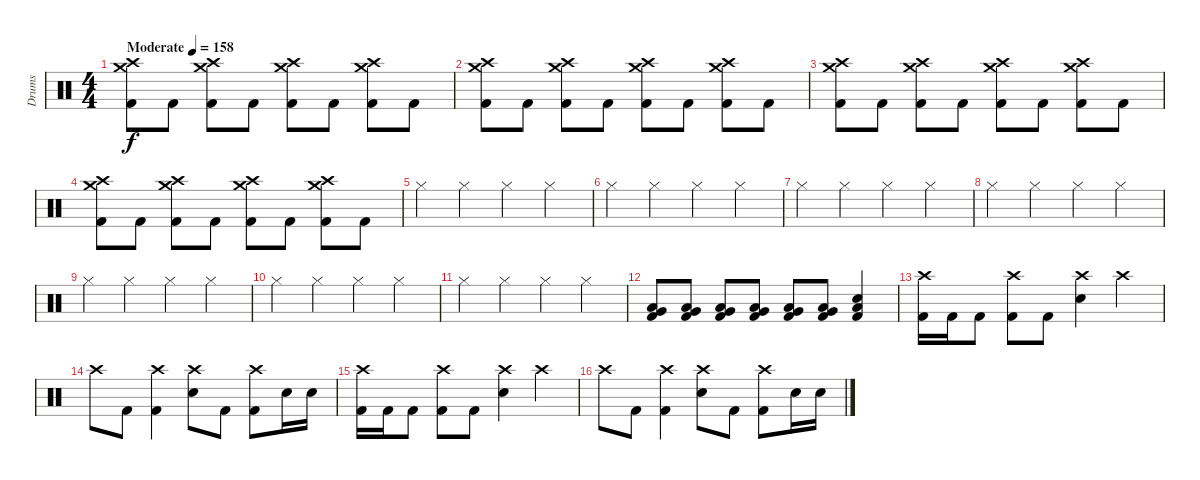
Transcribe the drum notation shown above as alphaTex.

\track ("Drums" "Drums") {instrument percussion}
\staff {score}
\articulation defaults
\ts (4 4)
\tempo (158 "Moderate")
\clef neutral
\ks c
("Crash high (hit)" "Crash medium (hit)" "Kick (hit) 2").8{dy f} "Kick (hit) 2".8 ("Crash high (hit)" "Crash medium (hit)" "Kick (hit) 2").8 "Kick (hit) 2".8 ("Crash high (hit)" "Crash medium (hit)" "Kick (hit) 2").8 "Kick (hit) 2".8 ("Crash high (hit)" "Crash medium (hit)" "Kick (hit) 2").8 "Kick (hit) 2".8 |
("Crash high (hit)" "Crash medium (hit)" "Kick (hit) 2").8 "Kick (hit) 2".8 ("Crash high (hit)" "Crash medium (hit)" "Kick (hit) 2").8 "Kick (hit) 2".8 ("Crash high (hit)" "Crash medium (hit)" "Kick (hit) 2").8 "Kick (hit) 2".8 ("Crash high (hit)" "Crash medium (hit)" "Kick (hit) 2").8 "Kick (hit) 2".8 |
("Crash high (hit)" "Crash medium (hit)" "Kick (hit) 2").8 "Kick (hit) 2".8 ("Crash high (hit)" "Crash medium (hit)" "Kick (hit) 2").8 "Kick (hit) 2".8 ("Crash high (hit)" "Crash medium (hit)" "Kick (hit) 2").8 "Kick (hit) 2".8 ("Crash high (hit)" "Crash medium (hit)" "Kick (hit) 2").8 "Kick (hit) 2".8 |
("Crash high (hit)" "Crash medium (hit)" "Kick (hit) 2").8 "Kick (hit) 2".8 ("Crash high (hit)" "Crash medium (hit)" "Kick (hit) 2").8 "Kick (hit) 2".8 ("Crash high (hit)" "Crash medium (hit)" "Kick (hit) 2").8 "Kick (hit) 2".8 ("Crash high (hit)" "Crash medium (hit)" "Kick (hit) 2").8 "Kick (hit) 2".8 |
"Hi-Hat (closed)".4 "Hi-Hat (closed)".4 "Hi-Hat (closed)".4 "Hi-Hat (closed)".4 |
"Hi-Hat (closed)".4 "Hi-Hat (closed)".4 "Hi-Hat (closed)".4 "Hi-Hat (closed)".4 |
"Hi-Hat (closed)".4 "Hi-Hat (closed)".4 "Hi-Hat (closed)".4 "Hi-Hat (closed)".4 |
"Hi-Hat (closed)".4 "Hi-Hat (closed)".4 "Hi-Hat (closed)".4 "Hi-Hat (closed)".4 |
"Hi-Hat (closed)".4 "Hi-Hat (closed)".4 "Hi-Hat (closed)".4 "Hi-Hat (closed)".4 |
"Hi-Hat (closed)".4 "Hi-Hat (closed)".4 "Hi-Hat (closed)".4 "Hi-Hat (closed)".4 |
"Hi-Hat (closed)".4 "Hi-Hat (closed)".4 "Hi-Hat (closed)".4 "Hi-Hat (closed)".4 |
("Very Low Tom (hit)" "Low Floor Tom (hit)" "Kick (hit) 2").8 ("Very Low Tom (hit)" "Low Floor Tom (hit)" "Kick (hit) 2").8 ("Very Low Tom (hit)" "Low Floor Tom (hit)" "Kick (hit) 2").8 ("Very Low Tom (hit)" "Low Floor Tom (hit)" "Kick (hit) 2").8 ("Very Low Tom (hit)" "Low Floor Tom (hit)" "Kick (hit) 2").8 ("Very Low Tom (hit)" "Low Floor Tom (hit)" "Kick (hit) 2").8 ("Electric Snare (hit)" "Low Floor Tom (hit)" "Kick (hit) 2").4 |
("Crash high (hit)" "Kick (hit) 2").16 "Kick (hit) 2".16 "Kick (hit) 2".8 ("Crash high (hit)" "Kick (hit) 2").8 "Kick (hit) 2".8 ("Crash high (hit)" "Electric Snare (hit)").4 "Crash high (hit)".4 |
"Crash high (hit)".8 "Kick (hit) 2".8 ("Crash high (hit)" "Kick (hit) 2").4 ("Crash high (hit)" "Electric Snare (hit)").8 "Kick (hit) 2".8 ("Crash high (hit)" "Kick (hit) 2").8 "Electric Snare (hit)".16 "Electric Snare (hit)".16 |
("Crash high (hit)" "Kick (hit) 2").16 "Kick (hit) 2".16 "Kick (hit) 2".8 ("Crash high (hit)" "Kick (hit) 2").8 "Kick (hit) 2".8 ("Crash high (hit)" "Electric Snare (hit)").4 "Crash high (hit)".4 |
"Crash high (hit)".8 "Kick (hit) 2".8 ("Crash high (hit)" "Kick (hit) 2").4 ("Crash high (hit)" "Electric Snare (hit)").8 "Kick (hit) 2".8 ("Crash high (hit)" "Kick (hit) 2").8 "Electric Snare (hit)".16 "Electric Snare (hit)".16
